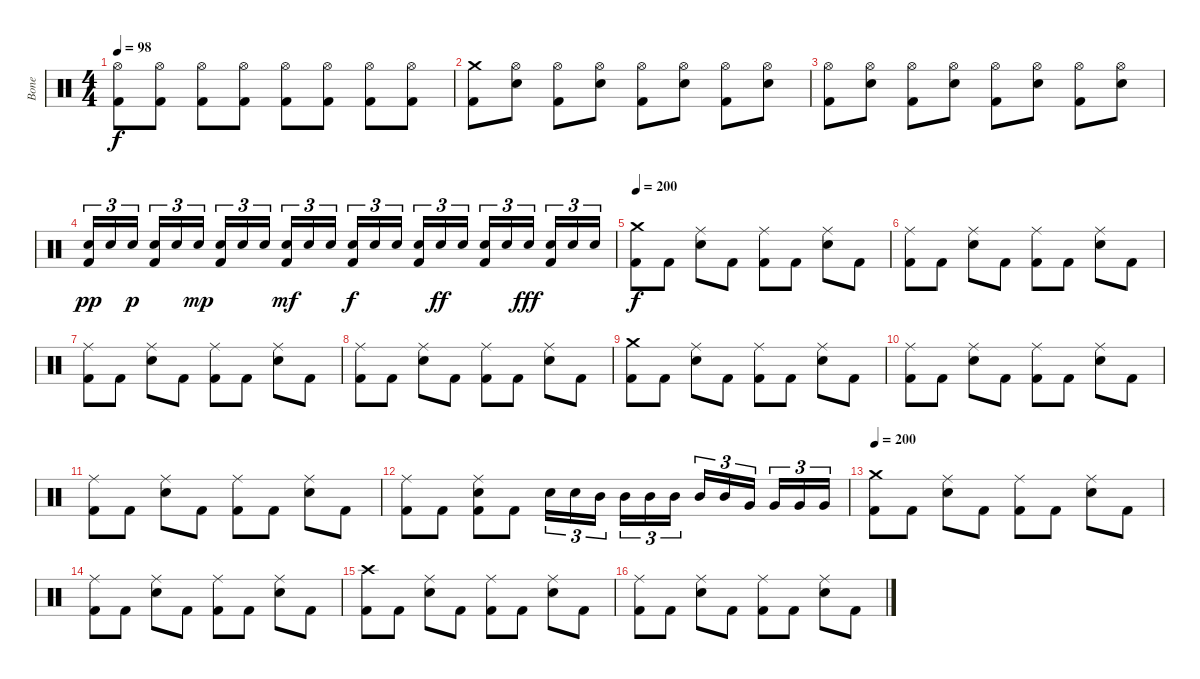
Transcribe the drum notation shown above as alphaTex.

\track ("Bone " "Bone ") {instrument percussion}
\staff {score}
\articulation defaults
\ts (4 4)
\tempo 98
\clef neutral
\ks c
("Hi-Hat (open)" "Kick (hit) 2").8{dy f} ("Hi-Hat (open)" "Kick (hit) 2").8 ("Hi-Hat (open)" "Kick (hit) 2").8 ("Hi-Hat (open)" "Kick (hit) 2").8 ("Hi-Hat (open)" "Kick (hit) 2").8 ("Hi-Hat (open)" "Kick (hit) 2").8 ("Hi-Hat (open)" "Kick (hit) 2").8 ("Hi-Hat (open)" "Kick (hit) 2").8 |
("Crash medium (hit)" "Kick (hit) 2").8 ("Hi-Hat (open)" "Electric Snare (hit)").8 ("Hi-Hat (open)" "Kick (hit) 2").8 ("Hi-Hat (open)" "Electric Snare (hit)").8 ("Hi-Hat (open)" "Kick (hit) 2").8 ("Hi-Hat (open)" "Electric Snare (hit)").8 ("Hi-Hat (open)" "Kick (hit) 2").8 ("Hi-Hat (open)" "Electric Snare (hit)").8 |
("Hi-Hat (open)" "Kick (hit) 2").8 ("Hi-Hat (open)" "Electric Snare (hit)").8 ("Hi-Hat (open)" "Kick (hit) 2").8 ("Hi-Hat (open)" "Electric Snare (hit)").8 ("Hi-Hat (open)" "Kick (hit) 2").8 ("Hi-Hat (open)" "Electric Snare (hit)").8 ("Hi-Hat (open)" "Kick (hit) 2").8 ("Hi-Hat (open)" "Electric Snare (hit)").8 |
("Electric Snare (hit)" "Kick (hit) 2").16{tu (3 2) dy pp} "Electric Snare (hit)".16{tu (3 2)} "Electric Snare (hit)".16{tu (3 2) dy p beam splitsecondary} ("Electric Snare (hit)" "Kick (hit) 2").16{tu (3 2)} "Electric Snare (hit)".16{tu (3 2)} "Electric Snare (hit)".16{tu (3 2) dy mp} ("Electric Snare (hit)" "Kick (hit) 2").16{tu (3 2)} "Electric Snare (hit)".16{tu (3 2)} "Electric Snare (hit)".16{tu (3 2) beam splitsecondary} ("Electric Snare (hit)" "Kick (hit) 2").16{tu (3 2) dy mf} "Electric Snare (hit)".16{tu (3 2)} "Electric Snare (hit)".16{tu (3 2)} ("Electric Snare (hit)" "Kick (hit) 2").16{tu (3 2) dy f} "Electric Snare (hit)".16{tu (3 2)} "Electric Snare (hit)".16{tu (3 2) beam splitsecondary} ("Electric Snare (hit)" "Kick (hit) 2").16{tu (3 2)} "Electric Snare (hit)".16{tu (3 2) dy ff} "Electric Snare (hit)".16{tu (3 2)} ("Electric Snare (hit)" "Kick (hit) 2").16{tu (3 2)} "Electric Snare (hit)".16{tu (3 2)} "Electric Snare (hit)".16{tu (3 2) dy fff beam splitsecondary} ("Electric Snare (hit)" "Kick (hit) 2").16{tu (3 2)} "Electric Snare (hit)".16{tu (3 2)} "Electric Snare (hit)".16{tu (3 2)} |
\tempo 200
("Crash medium (hit)" "Kick (hit) 2").8{dy f} "Kick (hit) 2".8 ("Ride (middle)" "Electric Snare (hit)").8 "Kick (hit) 2".8 ("Ride (middle)" "Kick (hit) 2").8 "Kick (hit) 2".8 ("Ride (middle)" "Electric Snare (hit)").8 "Kick (hit) 2".8 |
("Ride (middle)" "Kick (hit) 2").8 "Kick (hit) 2".8 ("Ride (middle)" "Electric Snare (hit)").8 "Kick (hit) 2".8 ("Ride (middle)" "Kick (hit) 2").8 "Kick (hit) 2".8 ("Ride (middle)" "Electric Snare (hit)").8 "Kick (hit) 2".8 |
("Ride (middle)" "Kick (hit) 2").8 "Kick (hit) 2".8 ("Ride (middle)" "Electric Snare (hit)").8 "Kick (hit) 2".8 ("Ride (middle)" "Kick (hit) 2").8 "Kick (hit) 2".8 ("Ride (middle)" "Electric Snare (hit)").8 "Kick (hit) 2".8 |
("Ride (middle)" "Kick (hit) 2").8 "Kick (hit) 2".8 ("Ride (middle)" "Electric Snare (hit)").8 "Kick (hit) 2".8 ("Ride (middle)" "Kick (hit) 2").8 "Kick (hit) 2".8 ("Ride (middle)" "Electric Snare (hit)").8 "Kick (hit) 2".8 |
("Crash medium (hit)" "Kick (hit) 2").8 "Kick (hit) 2".8 ("Ride (middle)" "Electric Snare (hit)").8 "Kick (hit) 2".8 ("Ride (middle)" "Kick (hit) 2").8 "Kick (hit) 2".8 ("Ride (middle)" "Electric Snare (hit)").8 "Kick (hit) 2".8 |
("Ride (middle)" "Kick (hit) 2").8 "Kick (hit) 2".8 ("Ride (middle)" "Electric Snare (hit)").8 "Kick (hit) 2".8 ("Ride (middle)" "Kick (hit) 2").8 "Kick (hit) 2".8 ("Ride (middle)" "Electric Snare (hit)").8 "Kick (hit) 2".8 |
("Ride (middle)" "Kick (hit) 2").8 "Kick (hit) 2".8 ("Ride (middle)" "Electric Snare (hit)").8 "Kick (hit) 2".8 ("Ride (middle)" "Kick (hit) 2").8 "Kick (hit) 2".8 ("Ride (middle)" "Electric Snare (hit)").8 "Kick (hit) 2".8 |
("Ride (middle)" "Kick (hit) 2").8 "Kick (hit) 2".8 ("Ride (middle)" "Electric Snare (hit)" "Kick (hit) 2").8 "Kick (hit) 2".8 "Electric Snare (hit)".16{tu (3 2)} "Electric Snare (hit)".16{tu (3 2)} "Mid Tom (hit)".16{tu (3 2) beam splitsecondary} "Mid Tom (hit)".16{tu (3 2)} "Mid Tom (hit)".16{tu (3 2)} "Mid Tom (hit)".16{tu (3 2)} "Mid Tom (hit)".16{tu (3 2)} "Mid Tom (hit)".16{tu (3 2)} "Very Low Tom (hit)".16{tu (3 2) beam splitsecondary} "Very Low Tom (hit)".16{tu (3 2)} "Very Low Tom (hit)".16{tu (3 2)} "Very Low Tom (hit)".16{tu (3 2)} |
\tempo 200
("Crash medium (hit)" "Kick (hit) 2").8 "Kick (hit) 2".8 ("Ride (middle)" "Electric Snare (hit)").8 "Kick (hit) 2".8 ("Ride (middle)" "Kick (hit) 2").8 "Kick (hit) 2".8 ("Ride (middle)" "Electric Snare (hit)").8 "Kick (hit) 2".8 |
("Ride (middle)" "Kick (hit) 2").8 "Kick (hit) 2".8 ("Ride (middle)" "Electric Snare (hit)").8 "Kick (hit) 2".8 ("Ride (middle)" "Kick (hit) 2").8 "Kick (hit) 2".8 ("Ride (middle)" "Electric Snare (hit)").8 "Kick (hit) 2".8 |
("Crash high (hit)" "Kick (hit) 2").8 "Kick (hit) 2".8 ("Ride (middle)" "Electric Snare (hit)").8 "Kick (hit) 2".8 ("Ride (middle)" "Kick (hit) 2").8 "Kick (hit) 2".8 ("Ride (middle)" "Electric Snare (hit)").8 "Kick (hit) 2".8 |
("Ride (middle)" "Kick (hit) 2").8 "Kick (hit) 2".8 ("Ride (middle)" "Electric Snare (hit)").8 "Kick (hit) 2".8 ("Ride (middle)" "Kick (hit) 2").8 "Kick (hit) 2".8 ("Ride (middle)" "Electric Snare (hit)").8 "Kick (hit) 2".8
